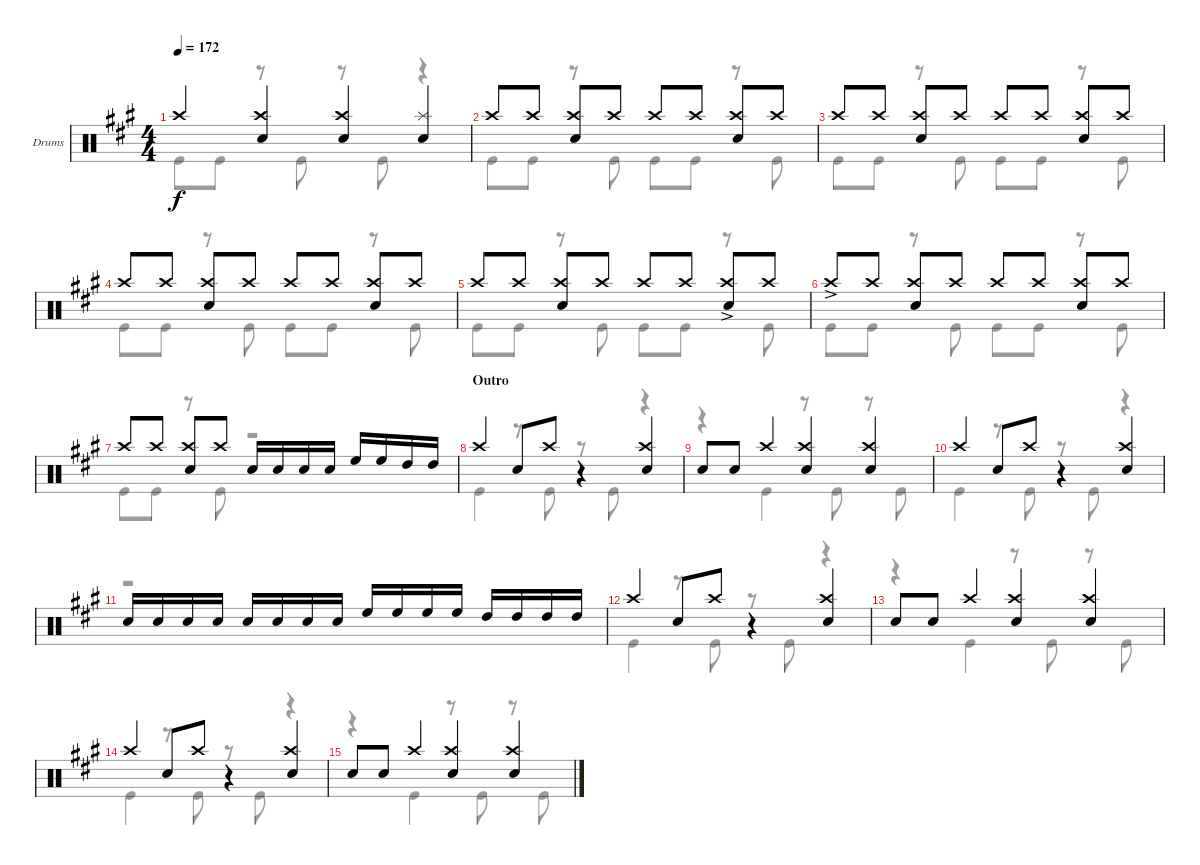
\defaultSystemsLayout 4
\bracketExtendMode groupsimilarinstruments
\firstSystemTrackNameOrientation horizontal
\otherSystemsTrackNameOrientation horizontal
\track ("Taylor Hawkins" "Drums") {instrument percussion}
\staff {score}
\articulation defaults
\voice
\ts (4 4)
\tempo 172
\clef neutral
\scale
0.333333
\ks a "Crash high (hit)".4{dy f}
("Snare (hit) 2" "Crash high (hit)").4 ("Snare (hit) 2" "Crash high (hit)").4 ("Snare (hit) 2" "Splash (hit)").4 |
\scale
0.333333 "Crash high (hit)".8 "Crash high (hit)".8 ("Snare (hit) 2" "Crash high (hit)").8 "Crash high (hit)".8 "Crash high (hit)".8 "Crash high (hit)".8 ("Snare (hit) 2" "Crash high (hit)").8 "Crash high (hit)".8 |
\scale
0.333333 "Crash high (hit)".8 "Crash high (hit)".8 ("Snare (hit) 2" "Crash high (hit)").8 "Crash high (hit)".8 "Crash high (hit)".8 "Crash high (hit)".8 ("Snare (hit) 2" "Crash high (hit)").8 "Crash high (hit)".8 |
\scale
0.333333 "Crash high (hit)".8 "Crash high (hit)".8 ("Snare (hit) 2" "Crash high (hit)").8 "Crash high (hit)".8 "Crash high (hit)".8 "Crash high (hit)".8 ("Snare (hit) 2" "Crash high (hit)").8 "Crash high (hit)".8 |
\scale
0.333333 "Crash high (hit)".8 "Crash high (hit)".8 ("Snare (hit) 2" "Crash high (hit)").8 "Crash high (hit)".8 "Crash high (hit)".8 "Crash high (hit)".8 ("Crash high (hit)"{ac} "Snare (hit) 2").8 "Crash high (hit)".8 |
\scale
0.333333 "Crash high (hit)"{ac}.8 "Crash high (hit)".8 ("Snare (hit) 2" "Crash high (hit)").8 "Crash high (hit)".8 "Crash high (hit)".8 "Crash high (hit)".8 ("Snare (hit) 2" "Crash high (hit)").8 "Crash high (hit)".8 |
\scale
0.333333 "Crash high (hit)".8 "Crash high (hit)".8 ("Snare (hit) 2" "Crash high (hit)").8 "Crash high (hit)".8 "Snare (hit) 2".16 "Snare (hit) 2".16 "Snare (hit) 2".16 "Snare (hit) 2".16 "High Floor Tom (hit)".16 "High Floor Tom (hit)".16 "High Tom (hit)".16 "High Tom (hit)".16 |
\section ("" "Outro")
\scale
0.333333 "Crash high (hit)".4 "Snare (hit) 2".8 "Crash high (hit)".8 r.4 ("Crash high (hit)" "Snare (hit) 2").4 |
\scale
0.333333 "Snare (hit) 2".8 "Snare (hit) 2".8 "Crash high (hit)".4 ("Crash high (hit)" "Snare (hit) 2").4 ("Crash high (hit)" "Snare (hit) 2").4 |
\scale
0.333333 "Crash high (hit)".4 "Snare (hit) 2".8 "Crash high (hit)".8 r.4 ("Crash high (hit)" "Snare (hit) 2").4 |
\scale
0.333333 "Snare (hit) 2".16 "Snare (hit) 2".16 "Snare (hit) 2".16 "Snare (hit) 2".16 "Snare (hit) 2".16 "Snare (hit) 2".16 "Snare (hit) 2".16 "Snare (hit) 2".16 "High Floor Tom (hit)".16 "High Floor Tom (hit)".16 "High Floor Tom (hit)".16 "High Floor Tom (hit)".16 "High Tom (hit)".16 "High Tom (hit)".16 "High Tom (hit)".16 "High Tom (hit)".16 |
\scale
0.333333 "Crash high (hit)".4 "Snare (hit) 2".8 "Crash high (hit)".8 r.4 ("Crash high (hit)" "Snare (hit) 2").4 |
\scale
0.333333 "Snare (hit) 2".8 "Snare (hit) 2".8 "Crash high (hit)".4 ("Crash high (hit)" "Snare (hit) 2").4 ("Crash high (hit)" "Snare (hit) 2").4 |
\scale
0.333333 "Crash high (hit)".4 "Snare (hit) 2".8 "Crash high (hit)".8 r.4 ("Crash high (hit)" "Snare (hit) 2").4 |
"Snare (hit) 2".8 "Snare (hit) 2".8 "Crash high (hit)".4 ("Crash high (hit)" "Snare (hit) 2").4 ("Crash high (hit)" "Snare (hit) 2").4
\voice
\clef neutral
\ottava regular
\simile none
\scale
0.333333
\ks a "Kick (hit)".8{dy f} "Kick (hit)".8
r.8 "Kick (hit)".8 r.8 "Kick (hit)".8 r.4 |
\scale
0.333333 "Kick (hit)".8 "Kick (hit)".8 r.8 "Kick (hit)".8 "Kick (hit)".8 "Kick (hit)".8 r.8 "Kick (hit)".8 |
\scale
0.333333 "Kick (hit)".8 "Kick (hit)".8 r.8 "Kick (hit)".8 "Kick (hit)".8 "Kick (hit)".8 r.8 "Kick (hit)".8 |
\scale
0.333333 "Kick (hit)".8 "Kick (hit)".8 r.8 "Kick (hit)".8 "Kick (hit)".8 "Kick (hit)".8 r.8 "Kick (hit)".8 |
\scale
0.333333 "Kick (hit)".8 "Kick (hit)".8 r.8 "Kick (hit)".8 "Kick (hit)".8 "Kick (hit)".8 r.8 "Kick (hit)".8 |
\scale
0.333333 "Kick (hit)".8 "Kick (hit)".8 r.8 "Kick (hit)".8 "Kick (hit)".8 "Kick (hit)".8 r.8 "Kick (hit)".8 |
\scale
0.333333 "Kick (hit)".8 "Kick (hit)".8 r.8 "Kick (hit)".8 r.2 |
\scale
0.333333 "Kick (hit)".4 r.8 "Kick (hit)".8 r.8 "Kick (hit)".8 r.4 |
\scale
0.333333 r.4 "Kick (hit)".4 r.8 "Kick (hit)".8 r.8 "Kick (hit)".8 |
\scale
0.333333 "Kick (hit)".4 r.8 "Kick (hit)".8 r.8 "Kick (hit)".8 r.4 |
\scale
0.333333 r.1 |
\scale
0.333333 "Kick (hit)".4 r.8 "Kick (hit)".8 r.8 "Kick (hit)".8 r.4 |
\scale
0.333333 r.4 "Kick (hit)".4 r.8 "Kick (hit)".8 r.8 "Kick (hit)".8 |
\scale
0.333333 "Kick (hit)".4 r.8 "Kick (hit)".8 r.8 "Kick (hit)".8 r.4 |
r.4 "Kick (hit)".4 r.8 "Kick (hit)".8 r.8 "Kick (hit)".8
